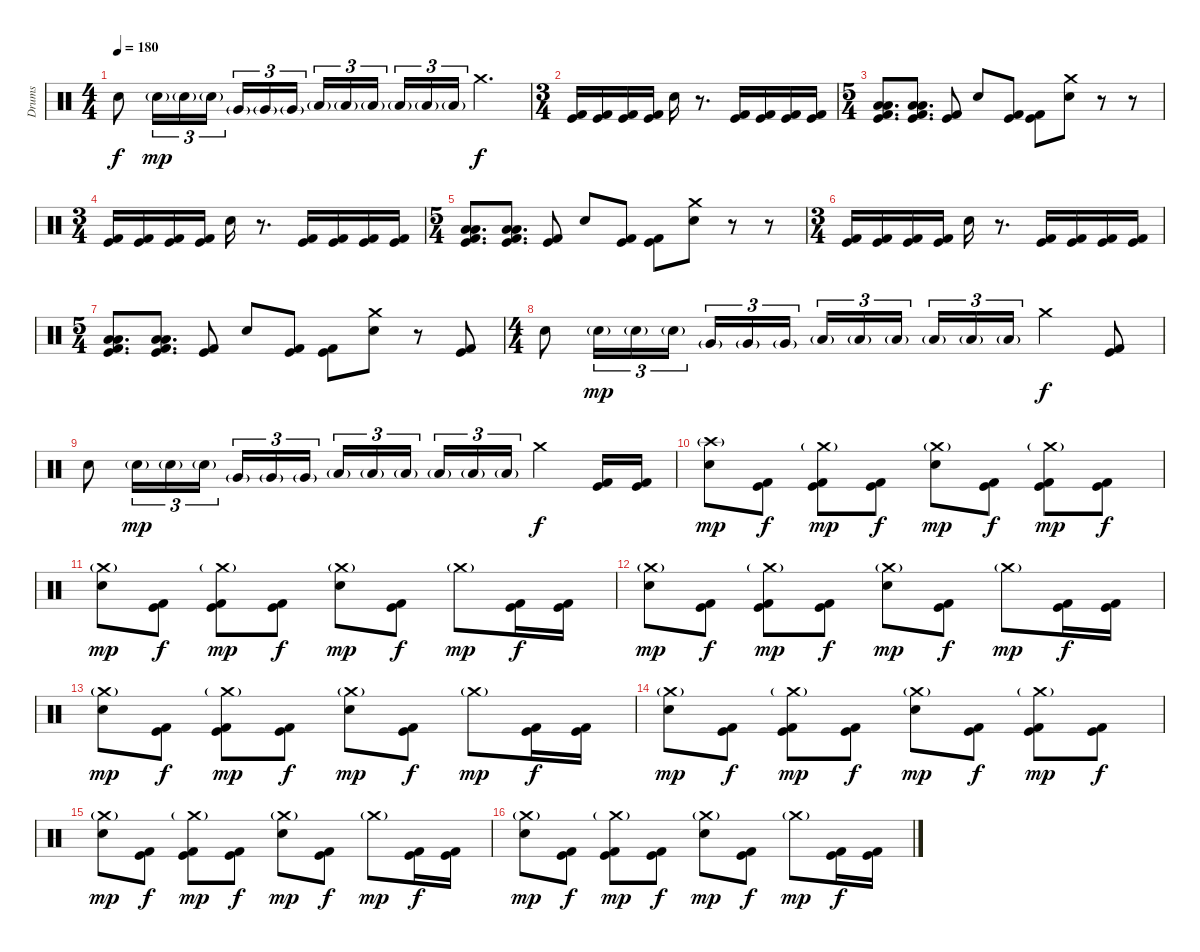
\track ("Drums" "Drums") {instrument percussion}
\staff {score}
\articulation defaults
\ts (4 4)
\tempo 180
\clef neutral
\ks c "Electric Snare (hit)".8{dy f} "Electric Snare (hit)"{g}.16{tu (3 2) dy mp} "Electric Snare (hit)"{g}.16{tu (3 2)} "Electric Snare (hit)"{g}.16{tu (3 2)} "Very Low Tom (hit)"{g}.16{tu (3 2)} "Very Low Tom (hit)"{g}.16{tu (3 2)} "Very Low Tom (hit)"{g}.16{tu (3 2) beam splitsecondary} "Low Tom (hit)"{g}.16{tu (3 2)} "Low Tom (hit)"{g}.16{tu (3 2)} "Low Tom (hit)"{g}.16{tu (3 2)} "Low Floor Tom (hit)"{g}.16{tu (3 2)} "Low Floor Tom (hit)"{g}.16{tu (3 2)} "Low Floor Tom (hit)"{g}.16{tu (3 2)} "Crash medium (hit)".4{d dy f}
|
\ts (3 4)
("Kick (hit)" "Kick (hit) 2").16 ("Kick (hit)" "Kick (hit) 2").16 ("Kick (hit)" "Kick (hit) 2").16 ("Kick (hit)" "Kick (hit) 2").16 "Electric Snare (hit)".16 r.8{d} ("Kick (hit)" "Kick (hit) 2").16 ("Kick (hit)" "Kick (hit) 2").16 ("Kick (hit)" "Kick (hit) 2").16 ("Kick (hit)" "Kick (hit) 2").16 |
\ts (5 4)
("Low Floor Tom (hit)" "Low Tom (hit)" "Kick (hit)" "Kick (hit) 2").8{d} ("Low Floor Tom (hit)" "Low Tom (hit)" "Kick (hit)" "Kick (hit) 2").8{d} ("Kick (hit)" "Kick (hit) 2").8 "Electric Snare (hit)".8 ("Kick (hit)" "Kick (hit) 2").8 ("Kick (hit)" "Kick (hit) 2").8 ("Crash medium (hit)" "Electric Snare (hit)").8 r.8 r.8 |
\ts (3 4)
("Kick (hit)" "Kick (hit) 2").16 ("Kick (hit)" "Kick (hit) 2").16 ("Kick (hit)" "Kick (hit) 2").16 ("Kick (hit)" "Kick (hit) 2").16 "Electric Snare (hit)".16 r.8{d} ("Kick (hit)" "Kick (hit) 2").16 ("Kick (hit)" "Kick (hit) 2").16 ("Kick (hit)" "Kick (hit) 2").16 ("Kick (hit)" "Kick (hit) 2").16 |
\ts (5 4)
("Low Floor Tom (hit)" "Low Tom (hit)" "Kick (hit)" "Kick (hit) 2").8{d} ("Low Floor Tom (hit)" "Low Tom (hit)" "Kick (hit)" "Kick (hit) 2").8{d} ("Kick (hit)" "Kick (hit) 2").8 "Electric Snare (hit)".8 ("Kick (hit)" "Kick (hit) 2").8 ("Kick (hit)" "Kick (hit) 2").8 ("Crash medium (hit)" "Electric Snare (hit)").8 r.8 r.8 |
\ts (3 4)
("Kick (hit)" "Kick (hit) 2").16 ("Kick (hit)" "Kick (hit) 2").16 ("Kick (hit)" "Kick (hit) 2").16 ("Kick (hit)" "Kick (hit) 2").16 "Electric Snare (hit)".16 r.8{d} ("Kick (hit)" "Kick (hit) 2").16 ("Kick (hit)" "Kick (hit) 2").16 ("Kick (hit)" "Kick (hit) 2").16 ("Kick (hit)" "Kick (hit) 2").16 |
\ts (5 4)
("Low Floor Tom (hit)" "Low Tom (hit)" "Kick (hit)" "Kick (hit) 2").8{d} ("Low Floor Tom (hit)" "Low Tom (hit)" "Kick (hit)" "Kick (hit) 2").8{d} ("Kick (hit)" "Kick (hit) 2").8 "Electric Snare (hit)".8 ("Kick (hit)" "Kick (hit) 2").8 ("Kick (hit)" "Kick (hit) 2").8 ("Crash medium (hit)" "Electric Snare (hit)").8 r.8 ("Kick (hit)" "Kick (hit) 2").8 |
\ts (4 4)
"Electric Snare (hit)".8 "Electric Snare (hit)"{g}.16{tu (3 2) dy mp} "Electric Snare (hit)"{g}.16{tu (3 2)} "Electric Snare (hit)"{g}.16{tu (3 2)} "Very Low Tom (hit)"{g}.16{tu (3 2)} "Very Low Tom (hit)"{g}.16{tu (3 2)} "Very Low Tom (hit)"{g}.16{tu (3 2) beam splitsecondary} "Low Tom (hit)"{g}.16{tu (3 2)} "Low Tom (hit)"{g}.16{tu (3 2)} "Low Tom (hit)"{g}.16{tu (3 2)} "Low Floor Tom (hit)"{g}.16{tu (3 2)} "Low Floor Tom (hit)"{g}.16{tu (3 2)} "Low Floor Tom (hit)"{g}.16{tu (3 2)} "Crash medium (hit)".4{dy f} ("Kick (hit)" "Kick (hit) 2").8 |
"Electric Snare (hit)".8 "Electric Snare (hit)"{g}.16{tu (3 2) dy mp} "Electric Snare (hit)"{g}.16{tu (3 2)} "Electric Snare (hit)"{g}.16{tu (3 2)} "Very Low Tom (hit)"{g}.16{tu (3 2)} "Very Low Tom (hit)"{g}.16{tu (3 2)} "Very Low Tom (hit)"{g}.16{tu (3 2) beam splitsecondary} "Low Tom (hit)"{g}.16{tu (3 2)} "Low Tom (hit)"{g}.16{tu (3 2)} "Low Tom (hit)"{g}.16{tu (3 2)} "Low Floor Tom (hit)"{g}.16{tu (3 2)} "Low Floor Tom (hit)"{g}.16{tu (3 2)} "Low Floor Tom (hit)"{g}.16{tu (3 2)} "Crash medium (hit)".4{dy f} ("Kick (hit)" "Kick (hit) 2").16 ("Kick (hit)" "Kick (hit) 2").16 |
("Crash high (hit)"{g} "Electric Snare (hit)").8{dy mp} ("Kick (hit)" "Kick (hit) 2").8{dy f} ("Crash medium (hit)"{g} "Kick (hit)" "Kick (hit) 2").8{dy mp} ("Kick (hit)" "Kick (hit) 2").8{dy f} ("Crash medium (hit)"{g} "Electric Snare (hit)").8{dy mp} ("Kick (hit)" "Kick (hit) 2").8{dy f} ("Crash medium (hit)"{g} "Kick (hit)" "Kick (hit) 2").8{dy mp} ("Kick (hit)" "Kick (hit) 2").8{dy f} |
("Crash medium (hit)"{g} "Electric Snare (hit)").8{dy mp} ("Kick (hit)" "Kick (hit) 2").8{dy f} ("Crash medium (hit)"{g} "Kick (hit)" "Kick (hit) 2").8{dy mp} ("Kick (hit)" "Kick (hit) 2").8{dy f} ("Crash medium (hit)"{g} "Electric Snare (hit)").8{dy mp} ("Kick (hit)" "Kick (hit) 2").8{dy f} "Crash medium (hit)"{g}.8{dy mp} ("Kick (hit)" "Kick (hit) 2").16{dy f} ("Kick (hit)" "Kick (hit) 2").16 |
("Crash medium (hit)"{g} "Electric Snare (hit)").8{dy mp} ("Kick (hit)" "Kick (hit) 2").8{dy f} ("Crash medium (hit)"{g} "Kick (hit)" "Kick (hit) 2").8{dy mp} ("Kick (hit)" "Kick (hit) 2").8{dy f} ("Crash medium (hit)"{g} "Electric Snare (hit)").8{dy mp} ("Kick (hit)" "Kick (hit) 2").8{dy f} "Crash medium (hit)"{g}.8{dy mp} ("Kick (hit)" "Kick (hit) 2").16{dy f} ("Kick (hit)" "Kick (hit) 2").16 |
("Crash medium (hit)"{g} "Electric Snare (hit)").8{dy mp} ("Kick (hit)" "Kick (hit) 2").8{dy f} ("Crash medium (hit)"{g} "Kick (hit)" "Kick (hit) 2").8{dy mp} ("Kick (hit)" "Kick (hit) 2").8{dy f} ("Crash medium (hit)"{g} "Electric Snare (hit)").8{dy mp} ("Kick (hit)" "Kick (hit) 2").8{dy f} "Crash medium (hit)"{g}.8{dy mp} ("Kick (hit)" "Kick (hit) 2").16{dy f} ("Kick (hit)" "Kick (hit) 2").16 |
("Crash medium (hit)"{g} "Electric Snare (hit)").8{dy mp} ("Kick (hit)" "Kick (hit) 2").8{dy f} ("Crash medium (hit)"{g} "Kick (hit)" "Kick (hit) 2").8{dy mp} ("Kick (hit)" "Kick (hit) 2").8{dy f} ("Crash medium (hit)"{g} "Electric Snare (hit)").8{dy mp} ("Kick (hit)" "Kick (hit) 2").8{dy f} ("Crash medium (hit)"{g} "Kick (hit)" "Kick (hit) 2").8{dy mp} ("Kick (hit)" "Kick (hit) 2").8{dy f} |
("Crash medium (hit)"{g} "Electric Snare (hit)").8{dy mp} ("Kick (hit)" "Kick (hit) 2").8{dy f} ("Crash medium (hit)"{g} "Kick (hit)" "Kick (hit) 2").8{dy mp} ("Kick (hit)" "Kick (hit) 2").8{dy f} ("Crash medium (hit)"{g} "Electric Snare (hit)").8{dy mp} ("Kick (hit)" "Kick (hit) 2").8{dy f} "Crash medium (hit)"{g}.8{dy mp} ("Kick (hit)" "Kick (hit) 2").16{dy f} ("Kick (hit)" "Kick (hit) 2").16 |
("Crash medium (hit)"{g} "Electric Snare (hit)").8{dy mp} ("Kick (hit)" "Kick (hit) 2").8{dy f} ("Crash medium (hit)"{g} "Kick (hit)" "Kick (hit) 2").8{dy mp} ("Kick (hit)" "Kick (hit) 2").8{dy f} ("Crash medium (hit)"{g} "Electric Snare (hit)").8{dy mp} ("Kick (hit)" "Kick (hit) 2").8{dy f} "Crash medium (hit)"{g}.8{dy mp} ("Kick (hit)" "Kick (hit) 2").16{dy f} ("Kick (hit)" "Kick (hit) 2").16
